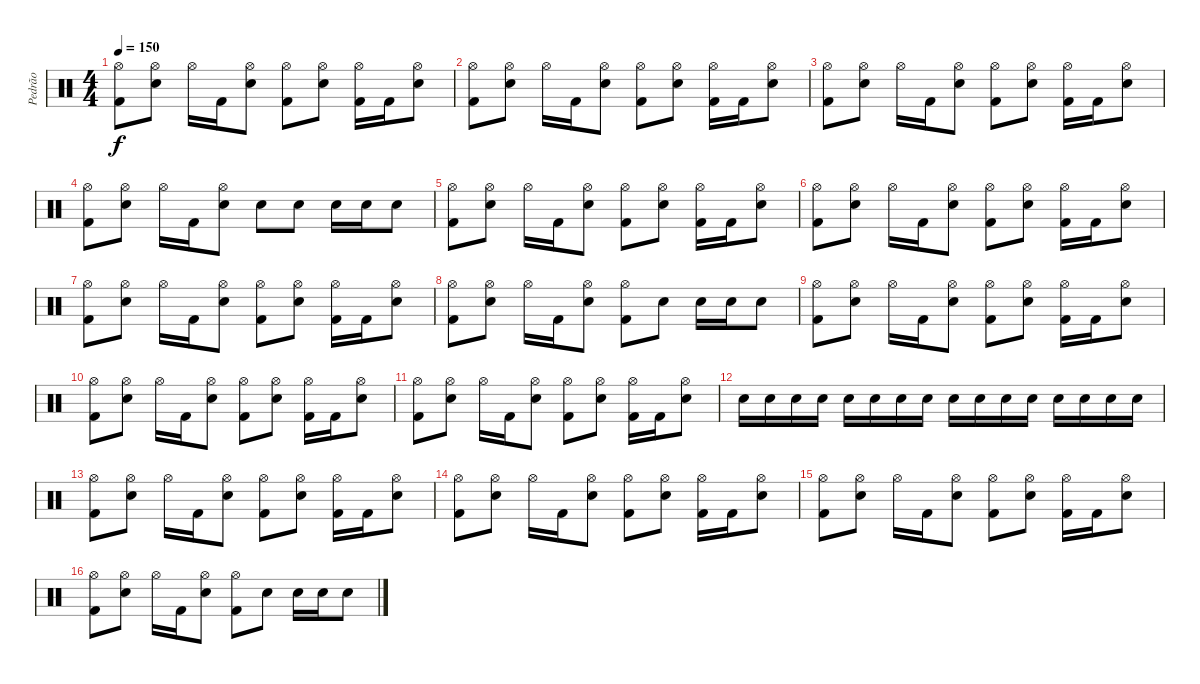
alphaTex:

\track ("Pedrão" "Pedrão") {instrument percussion}
\staff {score}
\articulation defaults
\ts (4 4)
\tempo 150
\clef neutral
\ks c
("Hi-Hat (open)" "Kick (hit) 2").8{dy f} ("Hi-Hat (open)" "Snare (hit) 2").8 "Hi-Hat (open)".16 "Kick (hit) 2".16 ("Hi-Hat (open)" "Snare (hit) 2").8 ("Hi-Hat (open)" "Kick (hit) 2").8 ("Hi-Hat (open)" "Snare (hit) 2").8 ("Hi-Hat (open)" "Kick (hit) 2").16 "Kick (hit) 2".16 ("Hi-Hat (open)" "Snare (hit) 2").8 |
("Hi-Hat (open)" "Kick (hit) 2").8 ("Hi-Hat (open)" "Snare (hit) 2").8 "Hi-Hat (open)".16 "Kick (hit) 2".16 ("Hi-Hat (open)" "Snare (hit) 2").8 ("Hi-Hat (open)" "Kick (hit) 2").8 ("Hi-Hat (open)" "Snare (hit) 2").8 ("Hi-Hat (open)" "Kick (hit) 2").16 "Kick (hit) 2".16 ("Hi-Hat (open)" "Snare (hit) 2").8 |
("Hi-Hat (open)" "Kick (hit) 2").8 ("Hi-Hat (open)" "Snare (hit) 2").8 "Hi-Hat (open)".16 "Kick (hit) 2".16 ("Hi-Hat (open)" "Snare (hit) 2").8 ("Hi-Hat (open)" "Kick (hit) 2").8 ("Hi-Hat (open)" "Snare (hit) 2").8 ("Hi-Hat (open)" "Kick (hit) 2").16 "Kick (hit) 2".16 ("Hi-Hat (open)" "Snare (hit) 2").8 |
("Hi-Hat (open)" "Kick (hit) 2").8 ("Hi-Hat (open)" "Snare (hit) 2").8 "Hi-Hat (open)".16 "Kick (hit) 2".16 ("Hi-Hat (open)" "Snare (hit) 2").8 "Snare (hit) 2".8 "Snare (hit) 2".8 "Snare (hit) 2".16 "Snare (hit) 2".16 "Snare (hit) 2".8 |
("Hi-Hat (open)" "Kick (hit) 2").8 ("Hi-Hat (open)" "Snare (hit) 2").8 "Hi-Hat (open)".16 "Kick (hit) 2".16 ("Hi-Hat (open)" "Snare (hit) 2").8 ("Hi-Hat (open)" "Kick (hit) 2").8 ("Hi-Hat (open)" "Snare (hit) 2").8 ("Hi-Hat (open)" "Kick (hit) 2").16 "Kick (hit) 2".16 ("Hi-Hat (open)" "Snare (hit) 2").8 |
("Hi-Hat (open)" "Kick (hit) 2").8 ("Hi-Hat (open)" "Snare (hit) 2").8 "Hi-Hat (open)".16 "Kick (hit) 2".16 ("Hi-Hat (open)" "Snare (hit) 2").8 ("Hi-Hat (open)" "Kick (hit) 2").8 ("Hi-Hat (open)" "Snare (hit) 2").8 ("Hi-Hat (open)" "Kick (hit) 2").16 "Kick (hit) 2".16 ("Hi-Hat (open)" "Snare (hit) 2").8 |
("Hi-Hat (open)" "Kick (hit) 2").8 ("Hi-Hat (open)" "Snare (hit) 2").8 "Hi-Hat (open)".16 "Kick (hit) 2".16 ("Hi-Hat (open)" "Snare (hit) 2").8 ("Hi-Hat (open)" "Kick (hit) 2").8 ("Hi-Hat (open)" "Snare (hit) 2").8 ("Hi-Hat (open)" "Kick (hit) 2").16 "Kick (hit) 2".16 ("Hi-Hat (open)" "Snare (hit) 2").8 |
("Hi-Hat (open)" "Kick (hit) 2").8 ("Hi-Hat (open)" "Snare (hit) 2").8 "Hi-Hat (open)".16 "Kick (hit) 2".16 ("Hi-Hat (open)" "Snare (hit) 2").8 ("Hi-Hat (open)" "Kick (hit) 2").8 "Snare (hit) 2".8 "Snare (hit) 2".16 "Snare (hit) 2".16 "Snare (hit) 2".8 |
("Hi-Hat (open)" "Kick (hit) 2").8 ("Hi-Hat (open)" "Snare (hit) 2").8 "Hi-Hat (open)".16 "Kick (hit) 2".16 ("Hi-Hat (open)" "Snare (hit) 2").8 ("Hi-Hat (open)" "Kick (hit) 2").8 ("Hi-Hat (open)" "Snare (hit) 2").8 ("Hi-Hat (open)" "Kick (hit) 2").16 "Kick (hit) 2".16 ("Hi-Hat (open)" "Snare (hit) 2").8 |
("Hi-Hat (open)" "Kick (hit) 2").8 ("Hi-Hat (open)" "Snare (hit) 2").8 "Hi-Hat (open)".16 "Kick (hit) 2".16 ("Hi-Hat (open)" "Snare (hit) 2").8 ("Hi-Hat (open)" "Kick (hit) 2").8 ("Hi-Hat (open)" "Snare (hit) 2").8 ("Hi-Hat (open)" "Kick (hit) 2").16 "Kick (hit) 2".16 ("Hi-Hat (open)" "Snare (hit) 2").8 |
("Hi-Hat (open)" "Kick (hit) 2").8 ("Hi-Hat (open)" "Snare (hit) 2").8 "Hi-Hat (open)".16 "Kick (hit) 2".16 ("Hi-Hat (open)" "Snare (hit) 2").8 ("Hi-Hat (open)" "Kick (hit) 2").8 ("Hi-Hat (open)" "Snare (hit) 2").8 ("Hi-Hat (open)" "Kick (hit) 2").16 "Kick (hit) 2".16 ("Hi-Hat (open)" "Snare (hit) 2").8 |
"Snare (hit) 2".16 "Snare (hit) 2".16 "Snare (hit) 2".16 "Snare (hit) 2".16 "Snare (hit) 2".16 "Snare (hit) 2".16 "Snare (hit) 2".16 "Snare (hit) 2".16 "Snare (hit) 2".16 "Snare (hit) 2".16 "Snare (hit) 2".16 "Snare (hit) 2".16 "Snare (hit) 2".16 "Snare (hit) 2".16 "Snare (hit) 2".16 "Snare (hit) 2".16 |
("Hi-Hat (open)" "Kick (hit) 2").8 ("Hi-Hat (open)" "Snare (hit) 2").8 "Hi-Hat (open)".16 "Kick (hit) 2".16 ("Hi-Hat (open)" "Snare (hit) 2").8 ("Hi-Hat (open)" "Kick (hit) 2").8 ("Hi-Hat (open)" "Snare (hit) 2").8 ("Hi-Hat (open)" "Kick (hit) 2").16 "Kick (hit) 2".16 ("Hi-Hat (open)" "Snare (hit) 2").8 |
("Hi-Hat (open)" "Kick (hit) 2").8 ("Hi-Hat (open)" "Snare (hit) 2").8 "Hi-Hat (open)".16 "Kick (hit) 2".16 ("Hi-Hat (open)" "Snare (hit) 2").8 ("Hi-Hat (open)" "Kick (hit) 2").8 ("Hi-Hat (open)" "Snare (hit) 2").8 ("Hi-Hat (open)" "Kick (hit) 2").16 "Kick (hit) 2".16 ("Hi-Hat (open)" "Snare (hit) 2").8 |
("Hi-Hat (open)" "Kick (hit) 2").8 ("Hi-Hat (open)" "Snare (hit) 2").8 "Hi-Hat (open)".16 "Kick (hit) 2".16 ("Hi-Hat (open)" "Snare (hit) 2").8 ("Hi-Hat (open)" "Kick (hit) 2").8 ("Hi-Hat (open)" "Snare (hit) 2").8 ("Hi-Hat (open)" "Kick (hit) 2").16 "Kick (hit) 2".16 ("Hi-Hat (open)" "Snare (hit) 2").8 |
("Hi-Hat (open)" "Kick (hit) 2").8 ("Hi-Hat (open)" "Snare (hit) 2").8 "Hi-Hat (open)".16 "Kick (hit) 2".16 ("Hi-Hat (open)" "Snare (hit) 2").8 ("Hi-Hat (open)" "Kick (hit) 2").8 "Snare (hit) 2".8 "Snare (hit) 2".16 "Snare (hit) 2".16 "Snare (hit) 2".8
